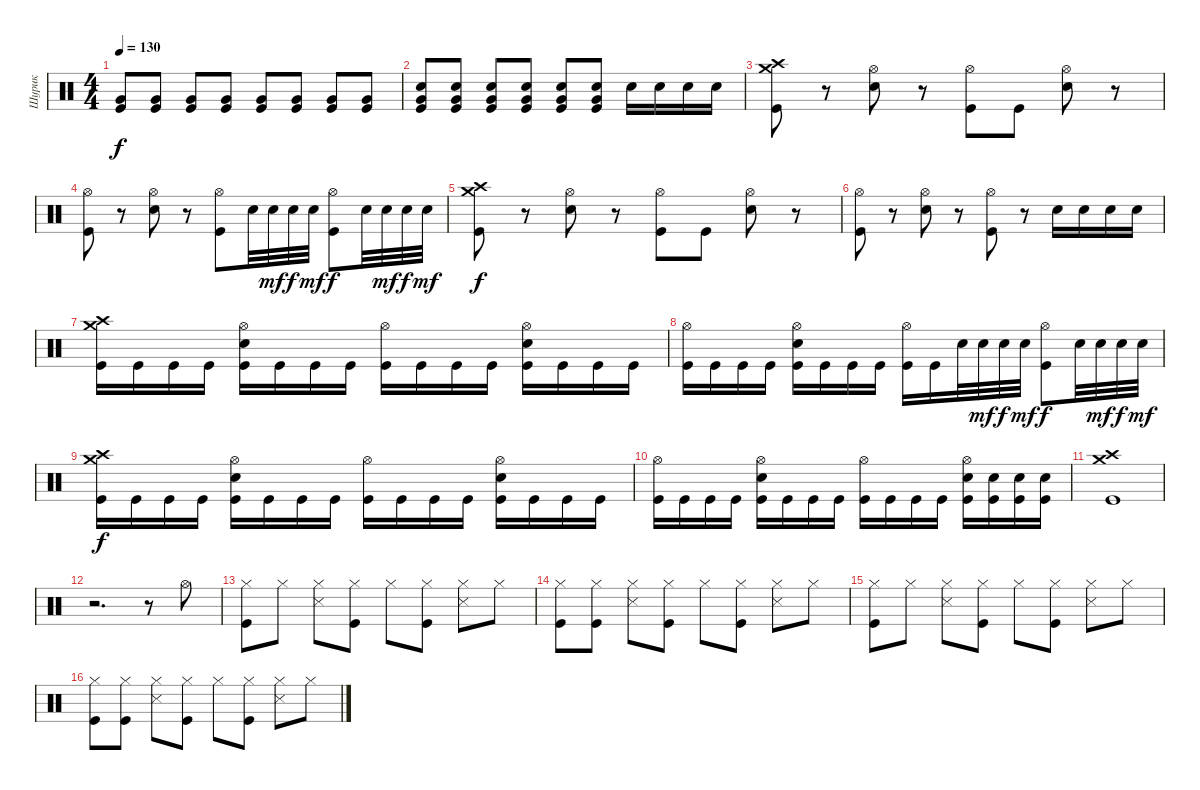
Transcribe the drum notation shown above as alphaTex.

\track ("Шурик" "Шурик") {instrument percussion}
\staff {score}
\articulation defaults
\ts (4 4)
\tempo 130
\clef neutral
\ks c
("Very Low Tom (hit)" "Kick (hit)").8{dy f} ("Very Low Tom (hit)" "Kick (hit)").8 ("Very Low Tom (hit)" "Kick (hit)").8 ("Very Low Tom (hit)" "Kick (hit)").8 ("Very Low Tom (hit)" "Kick (hit)").8 ("Very Low Tom (hit)" "Kick (hit)").8 ("Very Low Tom (hit)" "Kick (hit)").8 ("Very Low Tom (hit)" "Kick (hit)").8 |
("Very Low Tom (hit)" "Electric Snare (hit)" "Kick (hit)").8 ("Very Low Tom (hit)" "Electric Snare (hit)" "Kick (hit)").8 ("Very Low Tom (hit)" "Electric Snare (hit)" "Kick (hit)").8 ("Very Low Tom (hit)" "Electric Snare (hit)" "Kick (hit)").8 ("Very Low Tom (hit)" "Electric Snare (hit)" "Kick (hit)").8 ("Very Low Tom (hit)" "Electric Snare (hit)" "Kick (hit)").8 "Electric Snare (hit)".16 "Electric Snare (hit)".16 "Electric Snare (hit)".16 "Electric Snare (hit)".16 |
("Crash medium (hit)" "Crash high (hit)" "Kick (hit)").8 r.8 ("Hi-Hat (open)" "Electric Snare (hit)").8 r.8 ("Hi-Hat (open)" "Kick (hit)").8 "Kick (hit)".8 ("Hi-Hat (open)" "Electric Snare (hit)").8 r.8 |
("Hi-Hat (open)" "Kick (hit)").8 r.8 ("Hi-Hat (open)" "Electric Snare (hit)").8 r.8 ("Hi-Hat (open)" "Kick (hit)").8 "Electric Snare (hit)".32 "Electric Snare (hit)".32{dy mf} "Electric Snare (hit)".32{dy f} "Electric Snare (hit)".32{dy mf} ("Hi-Hat (open)" "Kick (hit)").8{dy f} "Electric Snare (hit)".32 "Electric Snare (hit)".32{dy mf} "Electric Snare (hit)".32{dy f} "Electric Snare (hit)".32{dy mf} |
("Crash medium (hit)" "Crash high (hit)" "Kick (hit)").8{dy f} r.8 ("Hi-Hat (open)" "Electric Snare (hit)").8 r.8 ("Hi-Hat (open)" "Kick (hit)").8 "Kick (hit)".8 ("Hi-Hat (open)" "Electric Snare (hit)").8 r.8 |
("Hi-Hat (open)" "Kick (hit)").8 r.8 ("Hi-Hat (open)" "Electric Snare (hit)").8 r.8 ("Hi-Hat (open)" "Kick (hit)").8 r.8 "Electric Snare (hit)".16 "Electric Snare (hit)".16 "Electric Snare (hit)".16 "Electric Snare (hit)".16 |
("Crash medium (hit)" "Crash high (hit)" "Kick (hit)").16 "Kick (hit)".16 "Kick (hit)".16 "Kick (hit)".16 ("Hi-Hat (open)" "Electric Snare (hit)" "Kick (hit)").16 "Kick (hit)".16 "Kick (hit)".16 "Kick (hit)".16 ("Hi-Hat (open)" "Kick (hit)").16 "Kick (hit)".16 "Kick (hit)".16 "Kick (hit)".16 ("Hi-Hat (open)" "Electric Snare (hit)" "Kick (hit)").16 "Kick (hit)".16 "Kick (hit)".16 "Kick (hit)".16 |
("Hi-Hat (open)" "Kick (hit)").16 "Kick (hit)".16 "Kick (hit)".16 "Kick (hit)".16 ("Hi-Hat (open)" "Electric Snare (hit)" "Kick (hit)").16 "Kick (hit)".16 "Kick (hit)".16 "Kick (hit)".16 ("Hi-Hat (open)" "Kick (hit)").16 "Kick (hit)".16 "Electric Snare (hit)".32 "Electric Snare (hit)".32{dy mf} "Electric Snare (hit)".32{dy f} "Electric Snare (hit)".32{dy mf} ("Hi-Hat (open)" "Kick (hit)").8{dy f} "Electric Snare (hit)".32 "Electric Snare (hit)".32{dy mf} "Electric Snare (hit)".32{dy f} "Electric Snare (hit)".32{dy mf} |
("Crash medium (hit)" "Crash high (hit)" "Kick (hit)").16{dy f} "Kick (hit)".16 "Kick (hit)".16 "Kick (hit)".16 ("Hi-Hat (open)" "Electric Snare (hit)" "Kick (hit)").16 "Kick (hit)".16 "Kick (hit)".16 "Kick (hit)".16 ("Hi-Hat (open)" "Kick (hit)").16 "Kick (hit)".16 "Kick (hit)".16 "Kick (hit)".16 ("Hi-Hat (open)" "Electric Snare (hit)" "Kick (hit)").16 "Kick (hit)".16 "Kick (hit)".16 "Kick (hit)".16 |
("Hi-Hat (open)" "Kick (hit)").16 "Kick (hit)".16 "Kick (hit)".16 "Kick (hit)".16 ("Hi-Hat (open)" "Electric Snare (hit)" "Kick (hit)").16 "Kick (hit)".16 "Kick (hit)".16 "Kick (hit)".16 ("Hi-Hat (open)" "Kick (hit)").16 "Kick (hit)".16 "Kick (hit)".16 "Kick (hit)".16 ("Hi-Hat (open)" "Electric Snare (hit)" "Kick (hit)").16 ("Electric Snare (hit)" "Kick (hit)").16 ("Electric Snare (hit)" "Kick (hit)").16 ("Electric Snare (hit)" "Kick (hit)").16 |
("Kick (hit)" "Crash high (hit)" "Crash medium (hit)").1 |
r.2{d} r.8 "Hi-Hat (open)".8 |
("Kick (hit)" "Hi-Hat (closed)").8 "Hi-Hat (closed)".8 ("Snare (side stick) 3" "Hi-Hat (closed)").8 ("Kick (hit)" "Hi-Hat (closed)").8 "Hi-Hat (closed)".8 ("Kick (hit)" "Hi-Hat (closed)").8 ("Snare (side stick) 3" "Hi-Hat (closed)").8 "Hi-Hat (closed)".8 |
("Kick (hit)" "Hi-Hat (closed)").8 ("Kick (hit)" "Hi-Hat (closed)").8 ("Snare (side stick) 3" "Hi-Hat (closed)").8 ("Kick (hit)" "Hi-Hat (closed)").8 "Hi-Hat (closed)".8 ("Kick (hit)" "Hi-Hat (closed)").8 ("Snare (side stick) 3" "Hi-Hat (closed)").8 "Hi-Hat (closed)".8 |
("Kick (hit)" "Hi-Hat (closed)").8 "Hi-Hat (closed)".8 ("Snare (side stick) 3" "Hi-Hat (closed)").8 ("Kick (hit)" "Hi-Hat (closed)").8 "Hi-Hat (closed)".8 ("Kick (hit)" "Hi-Hat (closed)").8 ("Snare (side stick) 3" "Hi-Hat (closed)").8 "Hi-Hat (closed)".8 |
("Kick (hit)" "Hi-Hat (closed)").8 ("Kick (hit)" "Hi-Hat (closed)").8 ("Snare (side stick) 3" "Hi-Hat (closed)").8 ("Kick (hit)" "Hi-Hat (closed)").8 "Hi-Hat (closed)".8 ("Kick (hit)" "Hi-Hat (closed)").8 ("Snare (side stick) 3" "Hi-Hat (closed)").8 "Hi-Hat (closed)".8
